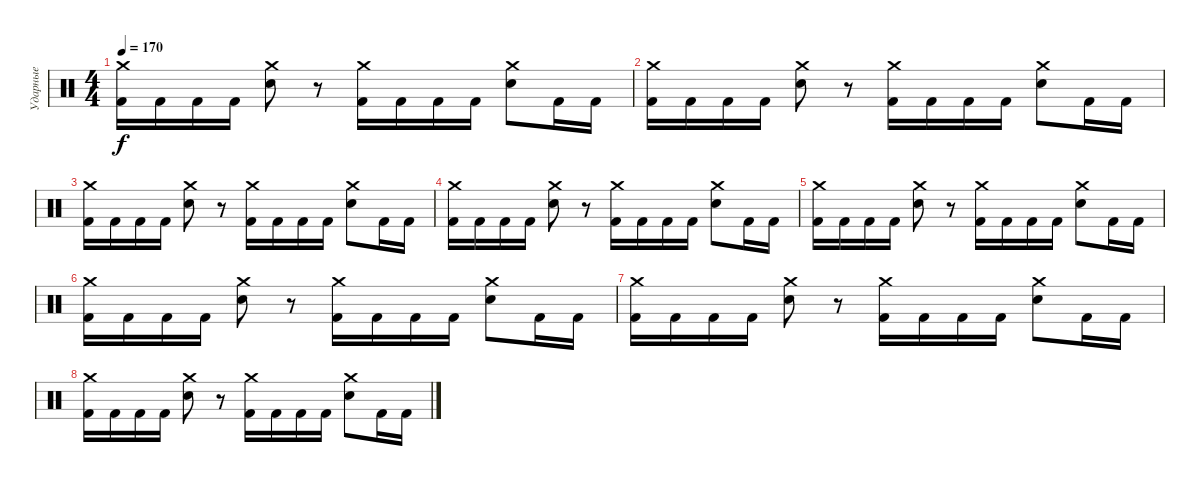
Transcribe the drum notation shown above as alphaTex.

\track ("Ударные" "Ударные") {instrument percussion}
\staff {score}
\articulation defaults
\ts (4 4)
\tempo 170
\clef neutral
\ks c
("Crash medium (hit)" "Kick (hit) 2").16{dy f} "Kick (hit) 2".16 "Kick (hit) 2".16 "Kick (hit) 2".16 ("Crash medium (hit)" "Electric Snare (hit)").8 r.8 ("Crash medium (hit)" "Kick (hit) 2").16 "Kick (hit) 2".16 "Kick (hit) 2".16 "Kick (hit) 2".16 ("Crash medium (hit)" "Electric Snare (hit)").8 "Kick (hit) 2".16 "Kick (hit) 2".16 |
("Crash medium (hit)" "Kick (hit) 2").16 "Kick (hit) 2".16 "Kick (hit) 2".16 "Kick (hit) 2".16 ("Crash medium (hit)" "Electric Snare (hit)").8 r.8 ("Crash medium (hit)" "Kick (hit) 2").16 "Kick (hit) 2".16 "Kick (hit) 2".16 "Kick (hit) 2".16 ("Crash medium (hit)" "Electric Snare (hit)").8 "Kick (hit) 2".16 "Kick (hit) 2".16 |
("Crash medium (hit)" "Kick (hit) 2").16 "Kick (hit) 2".16 "Kick (hit) 2".16 "Kick (hit) 2".16 ("Crash medium (hit)" "Electric Snare (hit)").8 r.8 ("Crash medium (hit)" "Kick (hit) 2").16 "Kick (hit) 2".16 "Kick (hit) 2".16 "Kick (hit) 2".16 ("Crash medium (hit)" "Electric Snare (hit)").8 "Kick (hit) 2".16 "Kick (hit) 2".16 |
("Crash medium (hit)" "Kick (hit) 2").16 "Kick (hit) 2".16 "Kick (hit) 2".16 "Kick (hit) 2".16 ("Crash medium (hit)" "Electric Snare (hit)").8 r.8 ("Crash medium (hit)" "Kick (hit) 2").16 "Kick (hit) 2".16 "Kick (hit) 2".16 "Kick (hit) 2".16 ("Crash medium (hit)" "Electric Snare (hit)").8 "Kick (hit) 2".16 "Kick (hit) 2".16 |
("Crash medium (hit)" "Kick (hit) 2").16 "Kick (hit) 2".16 "Kick (hit) 2".16 "Kick (hit) 2".16 ("Crash medium (hit)" "Electric Snare (hit)").8 r.8 ("Crash medium (hit)" "Kick (hit) 2").16 "Kick (hit) 2".16 "Kick (hit) 2".16 "Kick (hit) 2".16 ("Crash medium (hit)" "Electric Snare (hit)").8 "Kick (hit) 2".16 "Kick (hit) 2".16 |
("Crash medium (hit)" "Kick (hit) 2").16 "Kick (hit) 2".16 "Kick (hit) 2".16 "Kick (hit) 2".16 ("Crash medium (hit)" "Electric Snare (hit)").8 r.8 ("Crash medium (hit)" "Kick (hit) 2").16 "Kick (hit) 2".16 "Kick (hit) 2".16 "Kick (hit) 2".16 ("Crash medium (hit)" "Electric Snare (hit)").8 "Kick (hit) 2".16 "Kick (hit) 2".16 |
("Crash medium (hit)" "Kick (hit) 2").16 "Kick (hit) 2".16 "Kick (hit) 2".16 "Kick (hit) 2".16 ("Crash medium (hit)" "Electric Snare (hit)").8 r.8 ("Crash medium (hit)" "Kick (hit) 2").16 "Kick (hit) 2".16 "Kick (hit) 2".16 "Kick (hit) 2".16 ("Crash medium (hit)" "Electric Snare (hit)").8 "Kick (hit) 2".16 "Kick (hit) 2".16 |
("Crash medium (hit)" "Kick (hit) 2").16 "Kick (hit) 2".16 "Kick (hit) 2".16 "Kick (hit) 2".16 ("Crash medium (hit)" "Electric Snare (hit)").8 r.8 ("Crash medium (hit)" "Kick (hit) 2").16 "Kick (hit) 2".16 "Kick (hit) 2".16 "Kick (hit) 2".16 ("Crash medium (hit)" "Electric Snare (hit)").8 "Kick (hit) 2".16 "Kick (hit) 2".16
